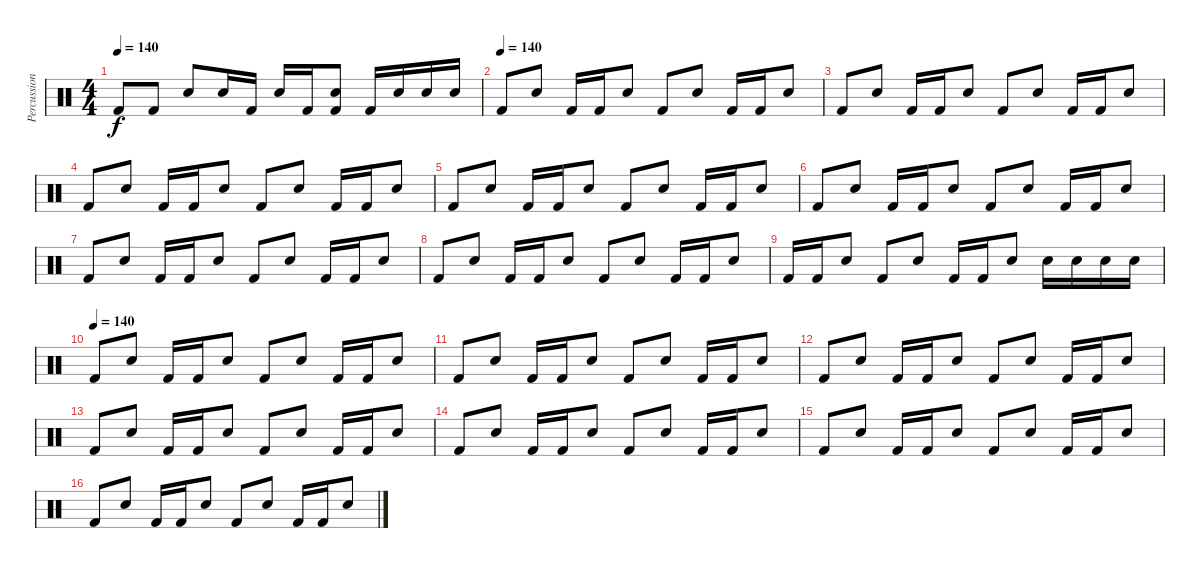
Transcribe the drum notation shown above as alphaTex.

\track ("Percussion" "Percussion") {instrument percussion}
\staff {score}
\articulation defaults
\ts (4 4)
\tempo 140
\clef neutral
\ks c "Kick (hit) 2".8{dy f} "Kick (hit) 2".8 "Snare (hit) 2".8 "Snare (hit) 2".16 "Kick (hit) 2".16 "Snare (hit) 2".16 "Kick (hit) 2".16
("Kick (hit) 2" "Snare (hit) 2").8 "Kick (hit) 2".16 "Snare (hit) 2".16 "Snare (hit) 2".16 "Snare (hit) 2".16 |
\tempo (140)
"Kick (hit) 2".8 "Snare (hit) 2".8 "Kick (hit) 2".16 "Kick (hit) 2".16 "Snare (hit) 2".8 "Kick (hit) 2".8 "Snare (hit) 2".8 "Kick (hit) 2".16 "Kick (hit) 2".16 "Snare (hit) 2".8 |
"Kick (hit) 2".8 "Snare (hit) 2".8 "Kick (hit) 2".16 "Kick (hit) 2".16 "Snare (hit) 2".8 "Kick (hit) 2".8 "Snare (hit) 2".8 "Kick (hit) 2".16 "Kick (hit) 2".16 "Snare (hit) 2".8 |
"Kick (hit) 2".8 "Snare (hit) 2".8 "Kick (hit) 2".16 "Kick (hit) 2".16 "Snare (hit) 2".8 "Kick (hit) 2".8 "Snare (hit) 2".8 "Kick (hit) 2".16 "Kick (hit) 2".16 "Snare (hit) 2".8 |
"Kick (hit) 2".8 "Snare (hit) 2".8 "Kick (hit) 2".16 "Kick (hit) 2".16 "Snare (hit) 2".8 "Kick (hit) 2".8 "Snare (hit) 2".8 "Kick (hit) 2".16 "Kick (hit) 2".16 "Snare (hit) 2".8 |
"Kick (hit) 2".8 "Snare (hit) 2".8 "Kick (hit) 2".16 "Kick (hit) 2".16 "Snare (hit) 2".8 "Kick (hit) 2".8 "Snare (hit) 2".8 "Kick (hit) 2".16 "Kick (hit) 2".16 "Snare (hit) 2".8 |
"Kick (hit) 2".8 "Snare (hit) 2".8 "Kick (hit) 2".16 "Kick (hit) 2".16 "Snare (hit) 2".8 "Kick (hit) 2".8 "Snare (hit) 2".8 "Kick (hit) 2".16 "Kick (hit) 2".16 "Snare (hit) 2".8 |
"Kick (hit) 2".8 "Snare (hit) 2".8 "Kick (hit) 2".16 "Kick (hit) 2".16 "Snare (hit) 2".8 "Kick (hit) 2".8 "Snare (hit) 2".8 "Kick (hit) 2".16 "Kick (hit) 2".16 "Snare (hit) 2".8 |
"Kick (hit) 2".16 "Kick (hit) 2".16 "Snare (hit) 2".8 "Kick (hit) 2".8 "Snare (hit) 2".8 "Kick (hit) 2".16 "Kick (hit) 2".16 "Snare (hit) 2".8 "Snare (hit) 2".16 "Snare (hit) 2".16 "Snare (hit) 2".16 "Snare (hit) 2".16 |
\tempo (140)
"Kick (hit) 2".8 "Snare (hit) 2".8 "Kick (hit) 2".16 "Kick (hit) 2".16 "Snare (hit) 2".8 "Kick (hit) 2".8 "Snare (hit) 2".8 "Kick (hit) 2".16 "Kick (hit) 2".16 "Snare (hit) 2".8 |
"Kick (hit) 2".8 "Snare (hit) 2".8 "Kick (hit) 2".16 "Kick (hit) 2".16 "Snare (hit) 2".8 "Kick (hit) 2".8 "Snare (hit) 2".8 "Kick (hit) 2".16 "Kick (hit) 2".16 "Snare (hit) 2".8 |
"Kick (hit) 2".8 "Snare (hit) 2".8 "Kick (hit) 2".16 "Kick (hit) 2".16 "Snare (hit) 2".8 "Kick (hit) 2".8 "Snare (hit) 2".8 "Kick (hit) 2".16 "Kick (hit) 2".16 "Snare (hit) 2".8 |
"Kick (hit) 2".8 "Snare (hit) 2".8 "Kick (hit) 2".16 "Kick (hit) 2".16 "Snare (hit) 2".8 "Kick (hit) 2".8 "Snare (hit) 2".8 "Kick (hit) 2".16 "Kick (hit) 2".16 "Snare (hit) 2".8 |
"Kick (hit) 2".8 "Snare (hit) 2".8 "Kick (hit) 2".16 "Kick (hit) 2".16 "Snare (hit) 2".8 "Kick (hit) 2".8 "Snare (hit) 2".8 "Kick (hit) 2".16 "Kick (hit) 2".16 "Snare (hit) 2".8 |
"Kick (hit) 2".8 "Snare (hit) 2".8 "Kick (hit) 2".16 "Kick (hit) 2".16 "Snare (hit) 2".8 "Kick (hit) 2".8 "Snare (hit) 2".8 "Kick (hit) 2".16 "Kick (hit) 2".16 "Snare (hit) 2".8 |
"Kick (hit) 2".8 "Snare (hit) 2".8 "Kick (hit) 2".16 "Kick (hit) 2".16 "Snare (hit) 2".8 "Kick (hit) 2".8 "Snare (hit) 2".8 "Kick (hit) 2".16 "Kick (hit) 2".16 "Snare (hit) 2".8
